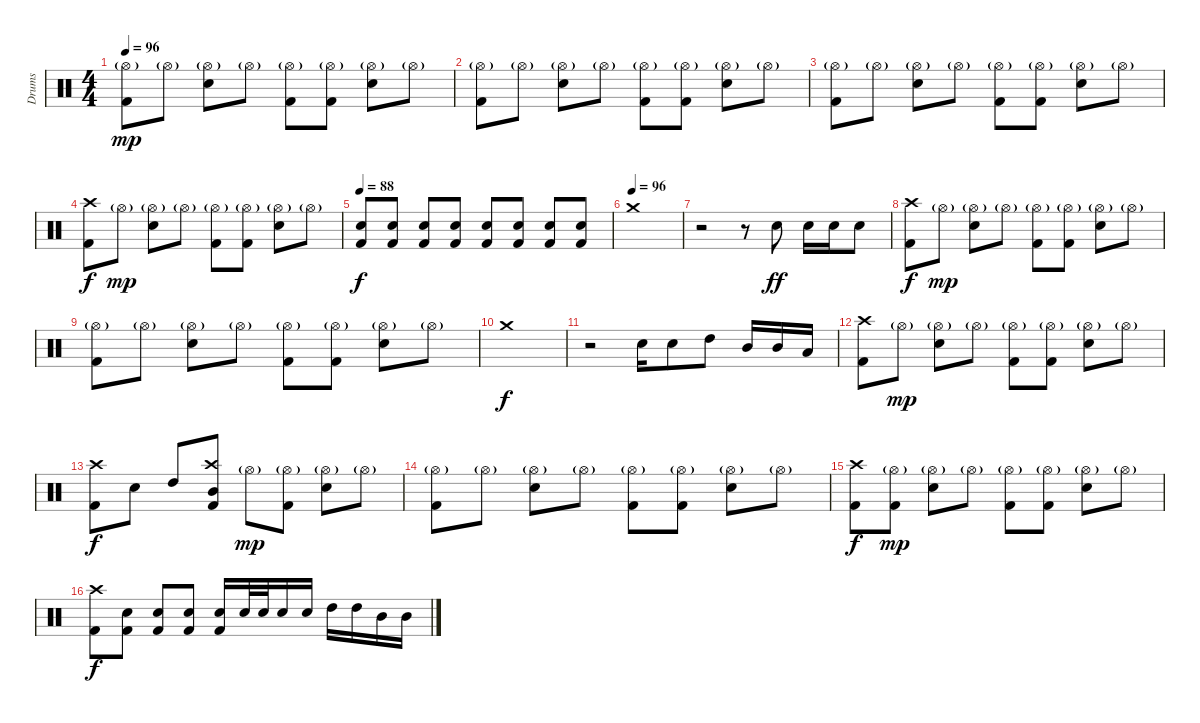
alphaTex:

\track ("Drums" "Drums") {instrument percussion}
\staff {score}
\articulation defaults
\ts (4 4)
\tempo 96
\clef neutral
\ks c
("Hi-Hat (open)"{g} "Kick (hit) 2").8{dy mp} "Hi-Hat (open)"{g}.8 ("Hi-Hat (open)"{g} "Electric Snare (hit)").8 "Hi-Hat (open)"{g}.8 ("Hi-Hat (open)"{g} "Kick (hit) 2").8 ("Hi-Hat (open)"{g} "Kick (hit) 2").8 ("Hi-Hat (open)"{g} "Electric Snare (hit)").8 "Hi-Hat (open)"{g}.8 |
("Hi-Hat (open)"{g} "Kick (hit) 2").8 "Hi-Hat (open)"{g}.8 ("Hi-Hat (open)"{g} "Electric Snare (hit)").8 "Hi-Hat (open)"{g}.8 ("Hi-Hat (open)"{g} "Kick (hit) 2").8 ("Hi-Hat (open)"{g} "Kick (hit) 2").8 ("Hi-Hat (open)"{g} "Electric Snare (hit)").8 "Hi-Hat (open)"{g}.8 |
("Hi-Hat (open)"{g} "Kick (hit) 2").8 "Hi-Hat (open)"{g}.8 ("Hi-Hat (open)"{g} "Electric Snare (hit)").8 "Hi-Hat (open)"{g}.8 ("Hi-Hat (open)"{g} "Kick (hit) 2").8 ("Hi-Hat (open)"{g} "Kick (hit) 2").8 ("Hi-Hat (open)"{g} "Electric Snare (hit)").8 "Hi-Hat (open)"{g}.8 |
("Crash high (hit)" "Kick (hit) 2").8{dy f} "Hi-Hat (open)"{g}.8{dy mp} ("Hi-Hat (open)"{g} "Electric Snare (hit)").8 "Hi-Hat (open)"{g}.8 ("Hi-Hat (open)"{g} "Kick (hit) 2").8 ("Hi-Hat (open)"{g} "Kick (hit) 2").8 ("Hi-Hat (open)"{g} "Electric Snare (hit)").8 "Hi-Hat (open)"{g}.8 |
\tempo 88
("Electric Snare (hit)" "Kick (hit) 2").8{dy f} ("Electric Snare (hit)" "Kick (hit) 2").8 ("Electric Snare (hit)" "Kick (hit) 2").8 ("Electric Snare (hit)" "Kick (hit) 2").8 ("Electric Snare (hit)" "Kick (hit) 2").8 ("Electric Snare (hit)" "Kick (hit) 2").8 ("Electric Snare (hit)" "Kick (hit) 2").8 ("Electric Snare (hit)" "Kick (hit) 2").8 |
\tempo (96)
"Crash medium (hit)".1 |
r.2 r.8 "Electric Snare (hit)".8{dy ff} "Electric Snare (hit)".16 "Electric Snare (hit)".16 "Electric Snare (hit)".8 |
("Crash high (hit)" "Kick (hit) 2").8{dy f} "Hi-Hat (open)"{g}.8{dy mp} ("Hi-Hat (open)"{g} "Electric Snare (hit)").8 "Hi-Hat (open)"{g}.8 ("Hi-Hat (open)"{g} "Kick (hit) 2").8 ("Hi-Hat (open)"{g} "Kick (hit) 2").8 ("Hi-Hat (open)"{g} "Electric Snare (hit)").8 "Hi-Hat (open)"{g}.8 |
("Hi-Hat (open)"{g} "Kick (hit) 2").8 "Hi-Hat (open)"{g}.8 ("Hi-Hat (open)"{g} "Electric Snare (hit)").8 "Hi-Hat (open)"{g}.8 ("Hi-Hat (open)"{g} "Kick (hit) 2").8 ("Hi-Hat (open)"{g} "Kick (hit) 2").8 ("Hi-Hat (open)"{g} "Electric Snare (hit)").8 "Hi-Hat (open)"{g}.8 |
"Crash medium (hit)".1{dy f} |
r.2 "Electric Snare (hit)".16 "Electric Snare (hit)".8 "High Tom (hit)".8 "Mid Tom (hit)".16 "Mid Tom (hit)".16 "Low Tom (hit)".16 |
("Crash high (hit)" "Kick (hit) 2").8 "Hi-Hat (open)"{g}.8{dy mp} ("Hi-Hat (open)"{g} "Electric Snare (hit)").8 "Hi-Hat (open)"{g}.8 ("Hi-Hat (open)"{g} "Kick (hit) 2").8 ("Hi-Hat (open)"{g} "Kick (hit) 2").8 ("Hi-Hat (open)"{g} "Electric Snare (hit)").8 "Hi-Hat (open)"{g}.8 |
("Crash high (hit)" "Kick (hit) 2").8{dy f} "Electric Snare (hit)".8 "High Tom (hit)".8 ("Crash high (hit)" "Mid Tom (hit)" "Kick (hit) 2").8 "Hi-Hat (open)"{g}.8{dy mp} ("Hi-Hat (open)"{g} "Kick (hit) 2").8 ("Hi-Hat (open)"{g} "Electric Snare (hit)").8 "Hi-Hat (open)"{g}.8 |
("Hi-Hat (open)"{g} "Kick (hit) 2").8 "Hi-Hat (open)"{g}.8 ("Hi-Hat (open)"{g} "Electric Snare (hit)").8 "Hi-Hat (open)"{g}.8 ("Hi-Hat (open)"{g} "Kick (hit) 2").8 ("Hi-Hat (open)"{g} "Kick (hit) 2").8 ("Hi-Hat (open)"{g} "Electric Snare (hit)").8 "Hi-Hat (open)"{g}.8 |
("Crash high (hit)" "Kick (hit) 2").8{dy f} ("Hi-Hat (open)"{g} "Kick (hit) 2").8{dy mp} ("Hi-Hat (open)"{g} "Electric Snare (hit)").8 "Hi-Hat (open)"{g}.8 ("Hi-Hat (open)"{g} "Kick (hit) 2").8 ("Hi-Hat (open)"{g} "Kick (hit) 2").8 ("Hi-Hat (open)"{g} "Electric Snare (hit)").8 "Hi-Hat (open)"{g}.8 |
("Crash high (hit)" "Kick (hit) 2").8{dy f} ("Electric Snare (hit)" "Kick (hit) 2").8 ("Electric Snare (hit)" "Kick (hit) 2").8 ("Electric Snare (hit)" "Kick (hit) 2").8 ("Electric Snare (hit)" "Kick (hit) 2").16 "Electric Snare (hit)".32 "Electric Snare (hit)".32 "Electric Snare (hit)".16 "Electric Snare (hit)".16 "High Tom (hit)".16 "High Tom (hit)".16 "Mid Tom (hit)".16 "Mid Tom (hit)".16
